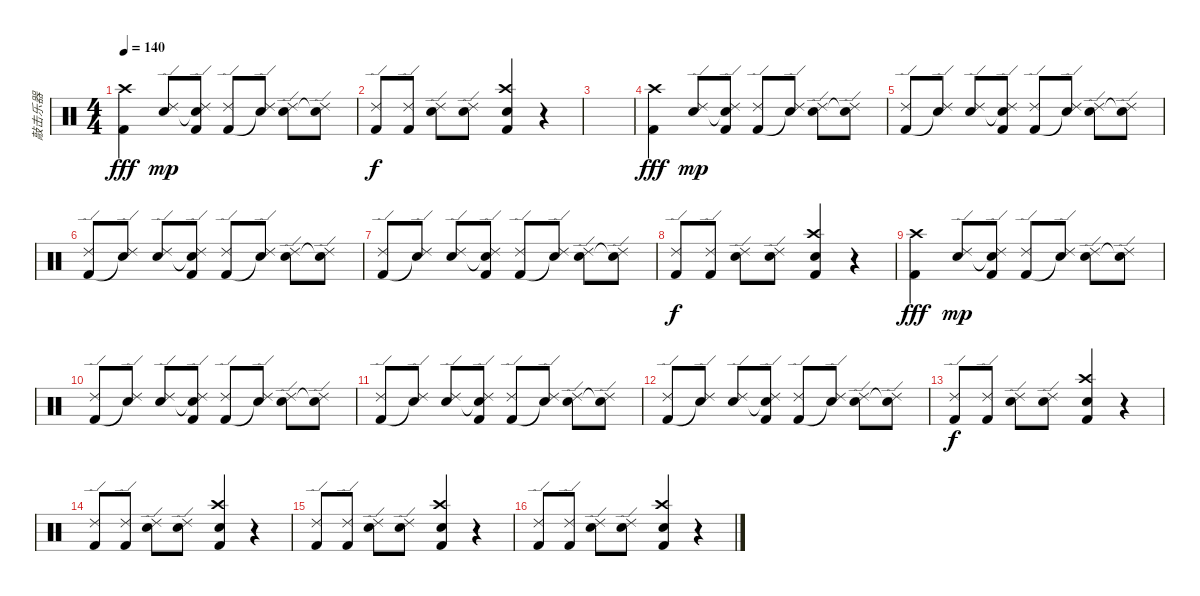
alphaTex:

\track ("敲击乐器" "敲击乐器") {instrument percussion}
\staff {score}
\articulation defaults
\ts (4 4)
\tempo 140
\clef neutral
\ks c
("Kick (hit) 2" "Crash high (hit)").4{dy fff} ("Electric Snare (hit)" "Ride (edge) 2").8{dy mp} ("Snare (hit)"{t} "Kick (hit) 2" "Ride (edge) 2").8 ("Kick (hit) 2" "Ride (edge) 2").8 ("Snare (hit)"{t} "Ride (edge) 2").8 ("Electric Snare (hit)" "Ride (edge) 2").8 ("Snare (hit)"{t} "Ride (edge) 2").8 |
("Kick (hit) 2" "Ride (edge) 2").8{dy f} ("Kick (hit) 2" "Ride (edge) 2").8 ("Snare (hit) 2" "Ride (edge) 2").8 ("Snare (hit) 2" "Ride (edge) 2").8 ("Crash high (hit)" "Snare (hit) 2" "Kick (hit) 2").4 r.4 |
|
("Kick (hit) 2" "Crash high (hit)").4{dy fff} ("Electric Snare (hit)" "Ride (edge) 2").8{dy mp} ("Snare (hit)"{t} "Kick (hit) 2" "Ride (edge) 2").8 ("Kick (hit) 2" "Ride (edge) 2").8 ("Snare (hit)"{t} "Ride (edge) 2").8 ("Electric Snare (hit)" "Ride (edge) 2").8 ("Snare (hit)"{t} "Ride (edge) 2").8 |
("Kick (hit) 2" "Ride (edge) 2").8 ("Snare (hit)"{t} "Ride (edge) 2").8 ("Electric Snare (hit)" "Ride (edge) 2").8 ("Snare (hit)"{t} "Kick (hit) 2" "Ride (edge) 2").8 ("Kick (hit) 2" "Ride (edge) 2").8 ("Snare (hit)"{t} "Ride (edge) 2").8 ("Electric Snare (hit)" "Ride (edge) 2").8 ("Snare (hit)"{t} "Ride (edge) 2").8 |
("Kick (hit) 2" "Ride (edge) 2").8 ("Snare (hit)"{t} "Ride (edge) 2").8 ("Electric Snare (hit)" "Ride (edge) 2").8 ("Snare (hit)"{t} "Kick (hit) 2" "Ride (edge) 2").8 ("Kick (hit) 2" "Ride (edge) 2").8 ("Snare (hit)"{t} "Ride (edge) 2").8 ("Electric Snare (hit)" "Ride (edge) 2").8 ("Snare (hit)"{t} "Ride (edge) 2").8 |
("Kick (hit) 2" "Ride (edge) 2").8 ("Snare (hit)"{t} "Ride (edge) 2").8 ("Electric Snare (hit)" "Ride (edge) 2").8 ("Snare (hit)"{t} "Kick (hit) 2" "Ride (edge) 2").8 ("Kick (hit) 2" "Ride (edge) 2").8 ("Snare (hit)"{t} "Ride (edge) 2").8 ("Electric Snare (hit)" "Ride (edge) 2").8 ("Snare (hit)"{t} "Ride (edge) 2").8 |
("Kick (hit) 2" "Ride (edge) 2").8{dy f} ("Kick (hit) 2" "Ride (edge) 2").8 ("Snare (hit) 2" "Ride (edge) 2").8 ("Snare (hit) 2" "Ride (edge) 2").8 ("Crash high (hit)" "Snare (hit) 2" "Kick (hit) 2").4 r.4 |
("Kick (hit) 2" "Crash high (hit)").4{dy fff} ("Electric Snare (hit)" "Ride (edge) 2").8{dy mp} ("Snare (hit)"{t} "Kick (hit) 2" "Ride (edge) 2").8 ("Kick (hit) 2" "Ride (edge) 2").8 ("Snare (hit)"{t} "Ride (edge) 2").8 ("Electric Snare (hit)" "Ride (edge) 2").8 ("Snare (hit)"{t} "Ride (edge) 2").8 |
("Kick (hit) 2" "Ride (edge) 2").8 ("Snare (hit)"{t} "Ride (edge) 2").8 ("Electric Snare (hit)" "Ride (edge) 2").8 ("Snare (hit)"{t} "Kick (hit) 2" "Ride (edge) 2").8 ("Kick (hit) 2" "Ride (edge) 2").8 ("Snare (hit)"{t} "Ride (edge) 2").8 ("Electric Snare (hit)" "Ride (edge) 2").8 ("Snare (hit)"{t} "Ride (edge) 2").8 |
("Kick (hit) 2" "Ride (edge) 2").8 ("Snare (hit)"{t} "Ride (edge) 2").8 ("Electric Snare (hit)" "Ride (edge) 2").8 ("Snare (hit)"{t} "Kick (hit) 2" "Ride (edge) 2").8 ("Kick (hit) 2" "Ride (edge) 2").8 ("Snare (hit)"{t} "Ride (edge) 2").8 ("Electric Snare (hit)" "Ride (edge) 2").8 ("Snare (hit)"{t} "Ride (edge) 2").8 |
("Kick (hit) 2" "Ride (edge) 2").8 ("Snare (hit)"{t} "Ride (edge) 2").8 ("Electric Snare (hit)" "Ride (edge) 2").8 ("Snare (hit)"{t} "Kick (hit) 2" "Ride (edge) 2").8 ("Kick (hit) 2" "Ride (edge) 2").8 ("Snare (hit)"{t} "Ride (edge) 2").8 ("Electric Snare (hit)" "Ride (edge) 2").8 ("Snare (hit)"{t} "Ride (edge) 2").8 |
("Kick (hit) 2" "Ride (edge) 2").8{dy f} ("Kick (hit) 2" "Ride (edge) 2").8 ("Snare (hit) 2" "Ride (edge) 2").8 ("Snare (hit) 2" "Ride (edge) 2").8 ("Crash high (hit)" "Snare (hit) 2" "Kick (hit) 2").4 r.4 |
("Kick (hit) 2" "Ride (edge) 2").8 ("Kick (hit) 2" "Ride (edge) 2").8 ("Snare (hit) 2" "Ride (edge) 2").8 ("Snare (hit) 2" "Ride (edge) 2").8 ("Crash high (hit)" "Snare (hit) 2" "Kick (hit) 2").4 r.4 |
("Kick (hit) 2" "Ride (edge) 2").8 ("Kick (hit) 2" "Ride (edge) 2").8 ("Snare (hit) 2" "Ride (edge) 2").8 ("Snare (hit) 2" "Ride (edge) 2").8 ("Crash high (hit)" "Snare (hit) 2" "Kick (hit) 2").4 r.4 |
("Kick (hit) 2" "Ride (edge) 2").8 ("Kick (hit) 2" "Ride (edge) 2").8 ("Snare (hit) 2" "Ride (edge) 2").8 ("Snare (hit) 2" "Ride (edge) 2").8 ("Crash high (hit)" "Snare (hit) 2" "Kick (hit) 2").4 r.4
